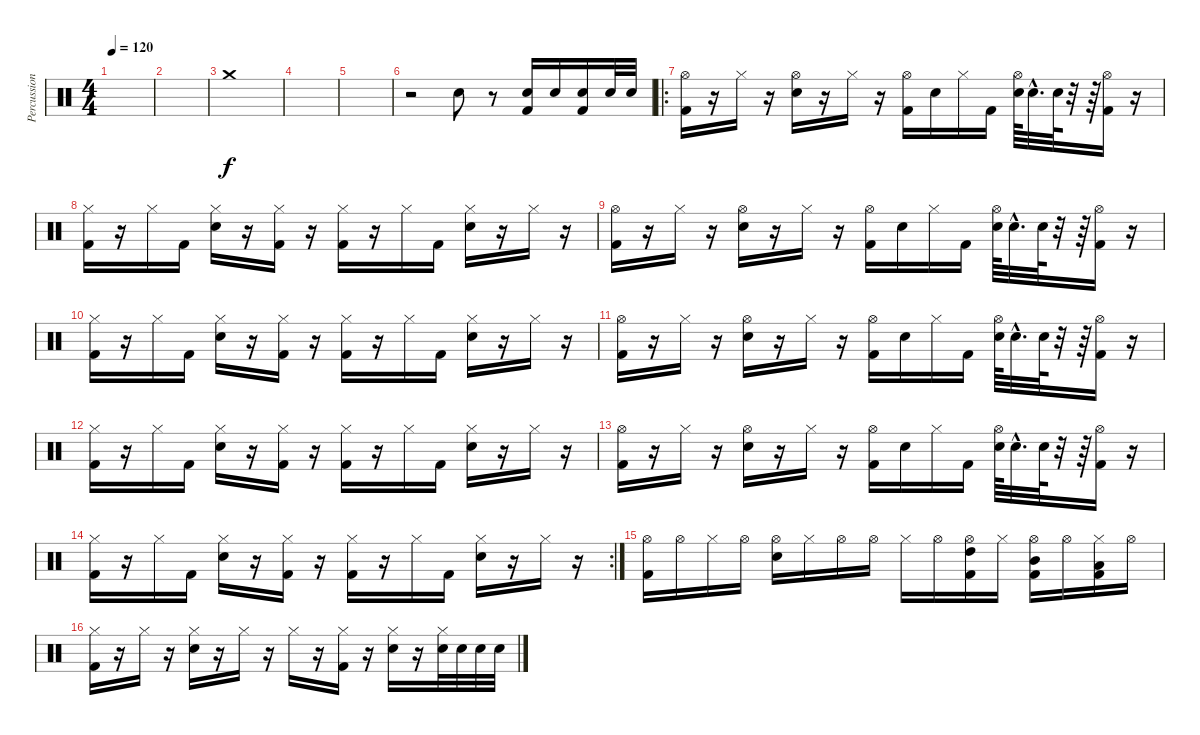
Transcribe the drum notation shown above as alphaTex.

\track ("Percussion" "Percussion") {instrument percussion}
\staff {score}
\articulation defaults
\ts (4 4)
\tempo 120
\clef neutral
\ks c
|
|
"Crash medium (hit)".1 |
|
|
r.2 "Electric Snare (hit)".8 r.8 ("Electric Snare (hit)" "Kick (hit) 2").16 "Electric Snare (hit)".16 ("Electric Snare (hit)" "Kick (hit) 2").16 "Electric Snare (hit)".32 "Electric Snare (hit)".32 |
\ro
("Hi-Hat (open)" "Kick (hit) 2").16 r.16 "Hi-Hat (closed)".16 r.16 ("Hi-Hat (open)" "Electric Snare (hit)").16 r.16 "Hi-Hat (closed)".16 r.16 ("Kick (hit) 2" "Hi-Hat (open)").16 "Electric Snare (hit)".16 "Hi-Hat (closed)".16 "Kick (hit) 2".16 ("Hi-Hat (open)" "Electric Snare (hit)").64 "Electric Snare (hit)"{hac}.32{d} "Electric Snare (hit)".64 r.32 r.64 ("Kick (hit) 2" "Hi-Hat (open)").16 r.16 |
("Kick (hit) 2" "Hi-Hat (closed)").16 r.16 "Hi-Hat (closed)".16 "Kick (hit) 2".16 ("Electric Snare (hit)" "Hi-Hat (closed)").16 r.16 ("Kick (hit) 2" "Hi-Hat (closed)").16 r.16 ("Kick (hit) 2" "Hi-Hat (closed)").16 r.16 "Hi-Hat (closed)".16 "Kick (hit) 2".16 ("Electric Snare (hit)" "Hi-Hat (closed)").16 r.16 "Hi-Hat (closed)".16 r.16 |
("Hi-Hat (open)" "Kick (hit) 2").16 r.16 "Hi-Hat (closed)".16 r.16 ("Hi-Hat (open)" "Electric Snare (hit)").16 r.16 "Hi-Hat (closed)".16 r.16 ("Kick (hit) 2" "Hi-Hat (open)").16 "Electric Snare (hit)".16 "Hi-Hat (closed)".16 "Kick (hit) 2".16 ("Hi-Hat (open)" "Electric Snare (hit)").64 "Electric Snare (hit)"{hac}.32{d} "Electric Snare (hit)".64 r.32 r.64 ("Kick (hit) 2" "Hi-Hat (open)").16 r.16 |
("Kick (hit) 2" "Hi-Hat (closed)").16 r.16 "Hi-Hat (closed)".16 "Kick (hit) 2".16 ("Electric Snare (hit)" "Hi-Hat (closed)").16 r.16 ("Kick (hit) 2" "Hi-Hat (closed)").16 r.16 ("Kick (hit) 2" "Hi-Hat (closed)").16 r.16 "Hi-Hat (closed)".16 "Kick (hit) 2".16 ("Electric Snare (hit)" "Hi-Hat (closed)").16 r.16 "Hi-Hat (closed)".16 r.16 |
("Hi-Hat (open)" "Kick (hit) 2").16 r.16 "Hi-Hat (closed)".16 r.16 ("Hi-Hat (open)" "Electric Snare (hit)").16 r.16 "Hi-Hat (closed)".16 r.16 ("Kick (hit) 2" "Hi-Hat (open)").16 "Electric Snare (hit)".16 "Hi-Hat (closed)".16 "Kick (hit) 2".16 ("Hi-Hat (open)" "Electric Snare (hit)").64 "Electric Snare (hit)"{hac}.32{d} "Electric Snare (hit)".64 r.32 r.64 ("Kick (hit) 2" "Hi-Hat (open)").16 r.16 |
("Kick (hit) 2" "Hi-Hat (closed)").16 r.16 "Hi-Hat (closed)".16 "Kick (hit) 2".16 ("Electric Snare (hit)" "Hi-Hat (closed)").16 r.16 ("Kick (hit) 2" "Hi-Hat (closed)").16 r.16 ("Kick (hit) 2" "Hi-Hat (closed)").16 r.16 "Hi-Hat (closed)".16 "Kick (hit) 2".16 ("Electric Snare (hit)" "Hi-Hat (closed)").16 r.16 "Hi-Hat (closed)".16 r.16 |
("Hi-Hat (open)" "Kick (hit) 2").16 r.16 "Hi-Hat (closed)".16 r.16 ("Hi-Hat (open)" "Electric Snare (hit)").16 r.16 "Hi-Hat (closed)".16 r.16 ("Kick (hit) 2" "Hi-Hat (open)").16 "Electric Snare (hit)".16 "Hi-Hat (closed)".16 "Kick (hit) 2".16 ("Hi-Hat (open)" "Electric Snare (hit)").64 "Electric Snare (hit)"{hac}.32{d} "Electric Snare (hit)".64 r.32 r.64 ("Kick (hit) 2" "Hi-Hat (open)").16 r.16 |
\rc 2
("Kick (hit) 2" "Hi-Hat (closed)").16 r.16 "Hi-Hat (closed)".16 "Kick (hit) 2".16 ("Electric Snare (hit)" "Hi-Hat (closed)").16 r.16 ("Kick (hit) 2" "Hi-Hat (closed)").16 r.16 ("Kick (hit) 2" "Hi-Hat (closed)").16 r.16 "Hi-Hat (closed)".16 "Kick (hit) 2".16 ("Electric Snare (hit)" "Hi-Hat (closed)").16 r.16 "Hi-Hat (closed)".16 r.16 |
("Hi-Hat (open)" "Kick (hit) 2").16 "Hi-Hat (open)".16 "Hi-Hat (closed)".16 "Hi-Hat (open)".16 ("Hi-Hat (open)" "Electric Snare (hit)").16 "Hi-Hat (closed)".16 "Hi-Hat (open)".16 "Hi-Hat (open)".16 "Hi-Hat (closed)".16 "Hi-Hat (open)".16 ("Hi-Hat (open)" "High Tom (hit)" "Kick (hit) 2").16 "Hi-Hat (closed)".16 ("Hi-Hat (open)" "Mid Tom (hit)" "Kick (hit) 2").16 "Hi-Hat (open)".16 ("Hi-Hat (closed)" "Low Tom (hit)" "Kick (hit) 2").16 "Hi-Hat (open)".16 |
("Hi-Hat (closed)" "Kick (hit) 2").16 r.16 "Hi-Hat (closed)".16 r.16 ("Hi-Hat (closed)" "Electric Snare (hit)").16 r.16 "Hi-Hat (closed)".16 r.16 "Hi-Hat (closed)".16 r.16 ("Hi-Hat (closed)" "Kick (hit) 2").16 r.16 ("Hi-Hat (closed)" "Electric Snare (hit)").16 r.16 ("Hi-Hat (closed)" "Electric Snare (hit)").32 "Electric Snare (hit)".32 "Electric Snare (hit)".32 "Electric Snare (hit)".32
